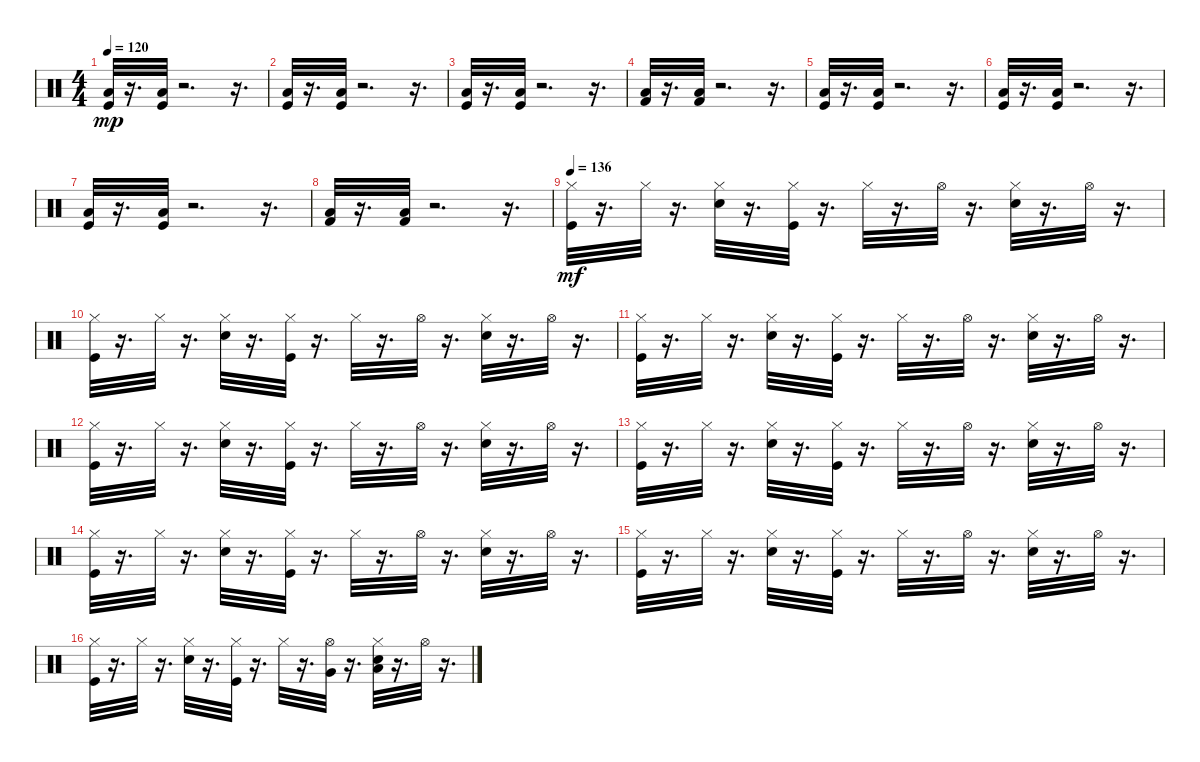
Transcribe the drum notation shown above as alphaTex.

\track "" {instrument percussion}
\staff {score}
\articulation defaults
\ts (4 4)
\tempo 120
\clef neutral
\ks c
("Low Floor Tom (hit)" "Kick (hit)").32{dy mp} r.16{d} ("Low Floor Tom (hit)" "Kick (hit)").32 r.2{d} r.16{d} |
("Low Floor Tom (hit)" "Kick (hit)").32 r.16{d} ("Low Floor Tom (hit)" "Kick (hit)").32 r.2{d} r.16{d} |
("Low Floor Tom (hit)" "Kick (hit)").32 r.16{d} ("Low Floor Tom (hit)" "Kick (hit)").32 r.2{d} r.16{d} |
("Low Floor Tom (hit)" "Kick (hit) 2").32 r.16{d} ("Low Floor Tom (hit)" "Kick (hit) 2").32 r.2{d} r.16{d} |
("Low Floor Tom (hit)" "Kick (hit)").32 r.16{d} ("Low Floor Tom (hit)" "Kick (hit)").32 r.2{d} r.16{d} |
("Low Floor Tom (hit)" "Kick (hit)").32 r.16{d} ("Low Floor Tom (hit)" "Kick (hit)").32 r.2{d} r.16{d} |
("Low Floor Tom (hit)" "Kick (hit)").32 r.16{d} ("Low Floor Tom (hit)" "Kick (hit)").32 r.2{d} r.16{d} |
("Low Floor Tom (hit)" "Kick (hit) 2").32 r.16{d} ("Low Floor Tom (hit)" "Kick (hit) 2").32 r.2{d} r.16{d} |
\tempo 136
("Kick (hit)" "Hi-Hat (closed)").32{dy mf} r.16{d} "Hi-Hat (closed)".32 r.16{d} ("Snare (hit) 2" "Hi-Hat (closed)").32 r.16{d} ("Kick (hit)" "Hi-Hat (closed)").32 r.16{d} "Hi-Hat (closed)".32 r.16{d} "Hi-Hat (open)".32 r.16{d} ("Snare (hit) 2" "Hi-Hat (closed)").32 r.16{d} "Hi-Hat (open)".32 r.16{d} |
("Kick (hit)" "Hi-Hat (closed)").32 r.16{d} "Hi-Hat (closed)".32 r.16{d} ("Snare (hit) 2" "Hi-Hat (closed)").32 r.16{d} ("Kick (hit)" "Hi-Hat (closed)").32 r.16{d} "Hi-Hat (closed)".32 r.16{d} "Hi-Hat (open)".32 r.16{d} ("Snare (hit) 2" "Hi-Hat (closed)").32 r.16{d} "Hi-Hat (open)".32 r.16{d} |
("Kick (hit)" "Hi-Hat (closed)").32 r.16{d} "Hi-Hat (closed)".32 r.16{d} ("Snare (hit) 2" "Hi-Hat (closed)").32 r.16{d} ("Kick (hit)" "Hi-Hat (closed)").32 r.16{d} "Hi-Hat (closed)".32 r.16{d} "Hi-Hat (open)".32 r.16{d} ("Snare (hit) 2" "Hi-Hat (closed)").32 r.16{d} "Hi-Hat (open)".32 r.16{d} |
("Kick (hit)" "Hi-Hat (closed)").32 r.16{d} "Hi-Hat (closed)".32 r.16{d} ("Snare (hit) 2" "Hi-Hat (closed)").32 r.16{d} ("Kick (hit)" "Hi-Hat (closed)").32 r.16{d} "Hi-Hat (closed)".32 r.16{d} "Hi-Hat (open)".32 r.16{d} ("Snare (hit) 2" "Hi-Hat (closed)").32 r.16{d} "Hi-Hat (open)".32 r.16{d} |
("Kick (hit)" "Hi-Hat (closed)").32 r.16{d} "Hi-Hat (closed)".32 r.16{d} ("Snare (hit) 2" "Hi-Hat (closed)").32 r.16{d} ("Kick (hit)" "Hi-Hat (closed)").32 r.16{d} "Hi-Hat (closed)".32 r.16{d} "Hi-Hat (open)".32 r.16{d} ("Snare (hit) 2" "Hi-Hat (closed)").32 r.16{d} "Hi-Hat (open)".32 r.16{d} |
("Kick (hit)" "Hi-Hat (closed)").32 r.16{d} "Hi-Hat (closed)".32 r.16{d} ("Snare (hit) 2" "Hi-Hat (closed)").32 r.16{d} ("Kick (hit)" "Hi-Hat (closed)").32 r.16{d} "Hi-Hat (closed)".32 r.16{d} "Hi-Hat (open)".32 r.16{d} ("Snare (hit) 2" "Hi-Hat (closed)").32 r.16{d} "Hi-Hat (open)".32 r.16{d} |
("Kick (hit)" "Hi-Hat (closed)").32 r.16{d} "Hi-Hat (closed)".32 r.16{d} ("Snare (hit) 2" "Hi-Hat (closed)").32 r.16{d} ("Kick (hit)" "Hi-Hat (closed)").32 r.16{d} "Hi-Hat (closed)".32 r.16{d} "Hi-Hat (open)".32 r.16{d} ("Snare (hit) 2" "Hi-Hat (closed)").32 r.16{d} "Hi-Hat (open)".32 r.16{d} |
("Kick (hit)" "Hi-Hat (closed)").32 r.16{d} "Hi-Hat (closed)".32 r.16{d} ("Snare (hit) 2" "Hi-Hat (closed)").32 r.16{d} ("Kick (hit)" "Hi-Hat (closed)").32 r.16{d} "Hi-Hat (closed)".32 r.16{d} ("Very Low Tom (hit)" "Hi-Hat (open)").32 r.16{d} ("Low Floor Tom (hit)" "Snare (hit) 2" "Hi-Hat (closed)").32 r.16{d} "Hi-Hat (open)".32 r.16{d}
